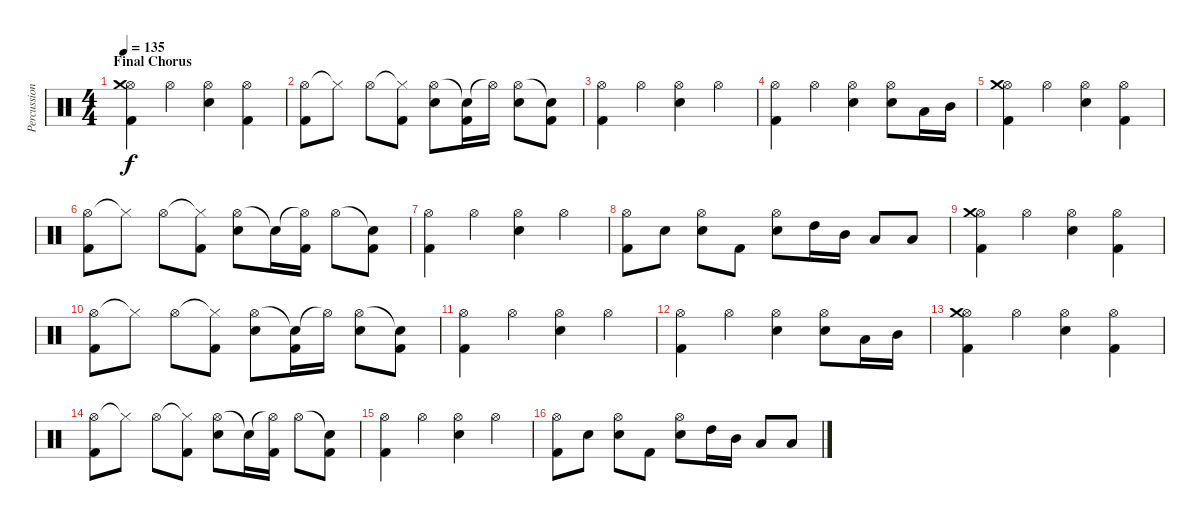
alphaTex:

\track ("Percussion" "Percussion") {instrument percussion}
\staff {score}
\articulation defaults
\ts (4 4)
\section ("" "Final Chorus")
\tempo 135
\clef neutral
\ks c
("Hi-Hat (open)" "Kick (hit) 2" "Crash medium (hit)").4{dy f volume 13} "Hi-Hat (open)".4 ("Hi-Hat (open)" "Electric Snare (hit)").4 ("Hi-Hat (open)" "Kick (hit) 2").4 |
("Hi-Hat (open)" "Kick (hit) 2").8 "Hi-Hat (closed)"{t}.8 "Hi-Hat (open)".8 ("Hi-Hat (closed)"{t} "Kick (hit) 2").8 ("Hi-Hat (open)" "Electric Snare (hit)").8 ("Snare (hit)"{t} "Kick (hit) 2").16 "Hi-Hat (open)"{t}.16 ("Hi-Hat (open)" "Electric Snare (hit)").8 ("Snare (hit)"{t} "Kick (hit) 2").8 |
("Hi-Hat (open)" "Kick (hit) 2").4 "Hi-Hat (open)".4 ("Hi-Hat (open)" "Electric Snare (hit)").4 "Hi-Hat (open)".4 |
("Hi-Hat (open)" "Kick (hit) 2").4 "Hi-Hat (open)".4 ("Hi-Hat (open)" "Electric Snare (hit)").4 ("Hi-Hat (open)" "Electric Snare (hit)").8 "Low Floor Tom (hit)".16 "Mid Tom (hit)".16 |
("Hi-Hat (open)" "Kick (hit) 2" "Crash medium (hit)").4 "Hi-Hat (open)".4 ("Hi-Hat (open)" "Electric Snare (hit)").4 ("Hi-Hat (open)" "Kick (hit) 2").4 |
("Hi-Hat (open)" "Kick (hit) 2").8 "Hi-Hat (closed)"{t}.8 "Hi-Hat (open)".8 ("Hi-Hat (closed)"{t} "Kick (hit) 2").8 ("Hi-Hat (open)" "Electric Snare (hit)").8 "Snare (hit)"{t}.16 ("Hi-Hat (open)"{t} "Kick (hit) 2").16 "Hi-Hat (open)".8 ("Snare (hit)"{t} "Kick (hit) 2").8 |
("Hi-Hat (open)" "Kick (hit) 2").4 "Hi-Hat (open)".4 ("Hi-Hat (open)" "Electric Snare (hit)").4 "Hi-Hat (open)".4 |
("Hi-Hat (open)" "Kick (hit) 2").8 "Electric Snare (hit)".8 ("Hi-Hat (open)" "Electric Snare (hit)").8 "Kick (hit) 2".8 ("Hi-Hat (open)" "Electric Snare (hit)").8 "High Tom (hit)".16 "Mid Tom (hit)".16 "Low Tom (hit)".8 "Low Floor Tom (hit)".8 |
("Hi-Hat (open)" "Kick (hit) 2" "Crash medium (hit)").4 "Hi-Hat (open)".4 ("Hi-Hat (open)" "Electric Snare (hit)").4 ("Hi-Hat (open)" "Kick (hit) 2").4 |
("Hi-Hat (open)" "Kick (hit) 2").8 "Hi-Hat (closed)"{t}.8 "Hi-Hat (open)".8 ("Hi-Hat (closed)"{t} "Kick (hit) 2").8 ("Hi-Hat (open)" "Electric Snare (hit)").8 ("Snare (hit)"{t} "Kick (hit) 2").16 "Hi-Hat (open)"{t}.16 ("Hi-Hat (open)" "Electric Snare (hit)").8 ("Snare (hit)"{t} "Kick (hit) 2").8 |
("Hi-Hat (open)" "Kick (hit) 2").4 "Hi-Hat (open)".4 ("Hi-Hat (open)" "Electric Snare (hit)").4 "Hi-Hat (open)".4 |
("Hi-Hat (open)" "Kick (hit) 2").4 "Hi-Hat (open)".4 ("Hi-Hat (open)" "Electric Snare (hit)").4 ("Hi-Hat (open)" "Electric Snare (hit)").8 "Low Floor Tom (hit)".16 "Mid Tom (hit)".16 |
("Hi-Hat (open)" "Kick (hit) 2" "Crash medium (hit)").4 "Hi-Hat (open)".4 ("Hi-Hat (open)" "Electric Snare (hit)").4 ("Hi-Hat (open)" "Kick (hit) 2").4 |
("Hi-Hat (open)" "Kick (hit) 2").8 "Hi-Hat (closed)"{t}.8 "Hi-Hat (open)".8 ("Hi-Hat (closed)"{t} "Kick (hit) 2").8 ("Hi-Hat (open)" "Electric Snare (hit)").8 "Snare (hit)"{t}.16 ("Hi-Hat (open)"{t} "Kick (hit) 2").16 "Hi-Hat (open)".8 ("Snare (hit)"{t} "Kick (hit) 2").8 |
("Hi-Hat (open)" "Kick (hit) 2").4 "Hi-Hat (open)".4 ("Hi-Hat (open)" "Electric Snare (hit)").4 "Hi-Hat (open)".4 |
("Hi-Hat (open)" "Kick (hit) 2").8 "Electric Snare (hit)".8 ("Hi-Hat (open)" "Electric Snare (hit)").8 "Kick (hit) 2".8 ("Hi-Hat (open)" "Electric Snare (hit)").8 "High Tom (hit)".16 "Mid Tom (hit)".16 "Low Tom (hit)".8 "Low Floor Tom (hit)".8
